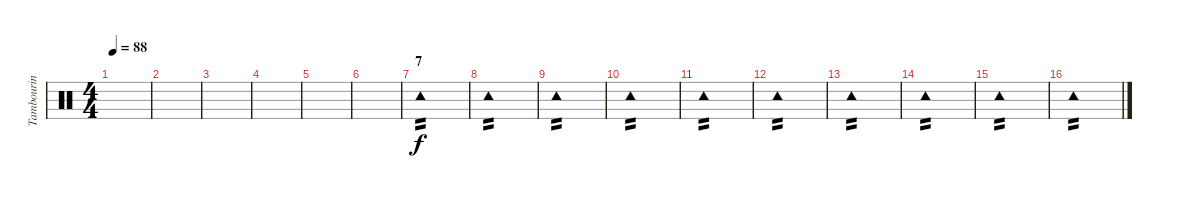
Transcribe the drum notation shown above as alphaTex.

\track ("Tambourin" "Tambourin") {instrument percussion}
\staff {score}
\articulation defaults
\ts (4 4)
\tempo 88
\clef neutral
\ks c
|
|
|
|
|
|
\section ("" "7")
"Tambourine (hit)".1{tp 2} |
"Tambourine (hit)".1{tp 2} |
"Tambourine (hit)".1{tp 2} |
"Tambourine (hit)".1{tp 2} |
"Tambourine (hit)".1{tp 2} |
"Tambourine (hit)".1{tp 2} |
"Tambourine (hit)".1{tp 2} |
"Tambourine (hit)".1{tp 2} |
"Tambourine (hit)".1{tp 2} |
"Tambourine (hit)".1{tp 2}
